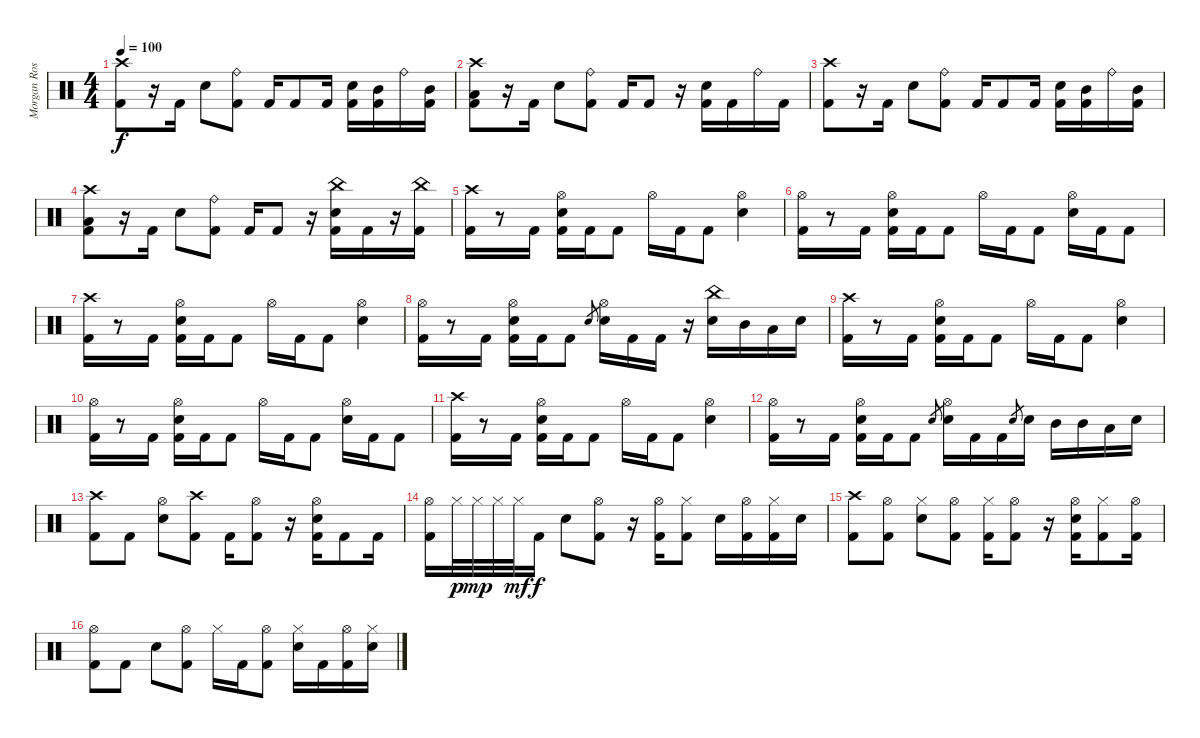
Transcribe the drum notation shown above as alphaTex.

\track ("Morgan Rose - Drums" "Morgan Ros") {instrument percussion}
\staff {score}
\articulation defaults
\ts (4 4)
\tempo 100
\clef neutral
\ks c
("Crash high (hit)" "Kick (hit) 2").8{dy f} r.16 "Kick (hit) 2".16 "Electric Snare (hit)".8 ("Ride (bell)" "Kick (hit) 2").8 "Kick (hit) 2".16 "Kick (hit) 2".8 "Kick (hit) 2".16 ("Electric Snare (hit)" "Kick (hit) 2").16 ("Mid Tom (hit)" "Kick (hit) 2").16 "Ride (bell)".16 ("Mid Tom (hit)" "Kick (hit) 2").16 |
("Crash high (hit)" "Low Tom (hit)" "Kick (hit) 2").8 r.16 "Kick (hit) 2".16 "Electric Snare (hit)".8 ("Ride (bell)" "Kick (hit) 2").8 "Kick (hit) 2".16 "Kick (hit) 2".8 r.16 ("Electric Snare (hit)" "Kick (hit) 2").16 "Kick (hit) 2".16 "Ride (bell)".16 "Kick (hit) 2".16 |
("Crash high (hit)" "Kick (hit) 2").8 r.16 "Kick (hit) 2".16 "Electric Snare (hit)".8 ("Ride (bell)" "Kick (hit) 2").8 "Kick (hit) 2".16 "Kick (hit) 2".8 "Kick (hit) 2".16 ("Electric Snare (hit)" "Kick (hit) 2").16 ("Mid Tom (hit)" "Kick (hit) 2").16 "Ride (bell)".16 ("Mid Tom (hit)" "Kick (hit) 2").16 |
("Crash high (hit)" "Low Tom (hit)" "Kick (hit) 2").8 r.16 "Kick (hit) 2".16 "Electric Snare (hit)".8 ("Ride (bell)" "Kick (hit) 2").8 "Kick (hit) 2".16 "Kick (hit) 2".8 r.16 ("China (hit)" "Electric Snare (hit)" "Kick (hit) 2").16 "Kick (hit) 2".16 r.16 ("China (hit)" "Kick (hit) 2").16 |
("Crash high (hit)" "Kick (hit) 2").16 r.8 "Kick (hit) 2".16 ("Hi-Hat (open)" "Electric Snare (hit)" "Kick (hit) 2").16 "Kick (hit) 2".16 "Kick (hit) 2".8 "Hi-Hat (open)".16 "Kick (hit) 2".16 "Kick (hit) 2".8 ("Hi-Hat (open)" "Electric Snare (hit)").4 |
("Hi-Hat (open)" "Kick (hit) 2").16 r.8 "Kick (hit) 2".16 ("Hi-Hat (open)" "Electric Snare (hit)" "Kick (hit) 2").16 "Kick (hit) 2".16 "Kick (hit) 2".8 "Hi-Hat (open)".16 "Kick (hit) 2".16 "Kick (hit) 2".8 ("Hi-Hat (open)" "Electric Snare (hit)").16 "Kick (hit) 2".16 "Kick (hit) 2".8 |
("Crash high (hit)" "Kick (hit) 2").16 r.8 "Kick (hit) 2".16 ("Hi-Hat (open)" "Electric Snare (hit)" "Kick (hit) 2").16 "Kick (hit) 2".16 "Kick (hit) 2".8 "Hi-Hat (open)".16 "Kick (hit) 2".16 "Kick (hit) 2".8 ("Hi-Hat (open)" "Electric Snare (hit)").4 |
("Hi-Hat (open)" "Kick (hit) 2").16 r.8 "Kick (hit) 2".16 ("Hi-Hat (open)" "Electric Snare (hit)" "Kick (hit) 2").16 "Kick (hit) 2".16 "Kick (hit) 2".8 "Electric Snare (hit)"{sl}.8{gr} ("Hi-Hat (open)" "Electric Snare (hit)").16 "Kick (hit) 2".16 "Kick (hit) 2".16 r.16 ("China (hit)" "Electric Snare (hit)").16 "Mid Tom (hit)".16 "Low Tom (hit)".16 "Electric Snare (hit)".16 |
("Crash high (hit)" "Kick (hit) 2").16 r.8 "Kick (hit) 2".16 ("Hi-Hat (open)" "Electric Snare (hit)" "Kick (hit) 2").16 "Kick (hit) 2".16 "Kick (hit) 2".8 "Hi-Hat (open)".16 "Kick (hit) 2".16 "Kick (hit) 2".8 ("Hi-Hat (open)" "Electric Snare (hit)").4 |
("Hi-Hat (open)" "Kick (hit) 2").16 r.8 "Kick (hit) 2".16 ("Hi-Hat (open)" "Electric Snare (hit)" "Kick (hit) 2").16 "Kick (hit) 2".16 "Kick (hit) 2".8 "Hi-Hat (open)".16 "Kick (hit) 2".16 "Kick (hit) 2".8 ("Hi-Hat (open)" "Electric Snare (hit)").16 "Kick (hit) 2".16 "Kick (hit) 2".8 |
("Crash high (hit)" "Kick (hit) 2").16 r.8 "Kick (hit) 2".16 ("Hi-Hat (open)" "Electric Snare (hit)" "Kick (hit) 2").16 "Kick (hit) 2".16 "Kick (hit) 2".8 "Hi-Hat (open)".16 "Kick (hit) 2".16 "Kick (hit) 2".8 ("Hi-Hat (open)" "Electric Snare (hit)").4 |
("Hi-Hat (open)" "Kick (hit) 2").16 r.8 "Kick (hit) 2".16 ("Hi-Hat (open)" "Electric Snare (hit)" "Kick (hit) 2").16 "Kick (hit) 2".16 "Kick (hit) 2".8 "Electric Snare (hit)"{sl}.8{gr} ("Hi-Hat (open)" "Electric Snare (hit)").16 "Kick (hit) 2".16 "Kick (hit) 2".16 "Electric Snare (hit)".8{gr} "Electric Snare (hit)".16 "Mid Tom (hit)".16 "Mid Tom (hit)".16 "Low Tom (hit)".16 "Electric Snare (hit)".16 |
("Crash high (hit)" "Kick (hit) 2").8 "Kick (hit) 2".8 ("Hi-Hat (open)" "Electric Snare (hit)").8 ("Crash high (hit)" "Kick (hit) 2").8 "Kick (hit) 2".16 ("Hi-Hat (open)" "Kick (hit) 2").8 r.16 ("Hi-Hat (open)" "Electric Snare (hit)" "Kick (hit) 2").16 "Kick (hit) 2".8 "Kick (hit) 2".16 |
("Hi-Hat (open)" "Kick (hit) 2").16 "Hi-Hat (closed)".32{dy p} "Hi-Hat (closed)".32{dy mp} "Hi-Hat (closed)".32 "Hi-Hat (closed)".32{dy mf} "Kick (hit) 2".16{dy f} "Electric Snare (hit)".8 ("Hi-Hat (open)" "Kick (hit) 2").8 r.16 ("Hi-Hat (open)" "Kick (hit) 2").16 ("Hi-Hat (closed)" "Kick (hit) 2").8 "Electric Snare (hit)".16 ("Hi-Hat (open)" "Kick (hit) 2").16 ("Hi-Hat (closed)" "Kick (hit) 2").16 "Electric Snare (hit)".16 |
("Crash high (hit)" "Kick (hit) 2").8 ("Hi-Hat (open)" "Kick (hit) 2").8 ("Hi-Hat (closed)" "Electric Snare (hit)").8 ("Hi-Hat (open)" "Kick (hit) 2").8 ("Hi-Hat (closed)" "Kick (hit) 2").16 ("Hi-Hat (open)" "Kick (hit) 2").8 r.16 ("Hi-Hat (open)" "Electric Snare (hit)" "Kick (hit) 2").16 ("Hi-Hat (closed)" "Kick (hit) 2").8 ("Hi-Hat (open)" "Kick (hit) 2").16 |
("Hi-Hat (open)" "Kick (hit) 2").8 "Kick (hit) 2".8 "Electric Snare (hit)".8 ("Hi-Hat (open)" "Kick (hit) 2").8 "Hi-Hat (closed)".16 "Kick (hit) 2".16 ("Hi-Hat (open)" "Kick (hit) 2").8 ("Hi-Hat (closed)" "Electric Snare (hit)").16 "Kick (hit) 2".16 ("Hi-Hat (open)" "Kick (hit) 2").16 ("Hi-Hat (closed)" "Electric Snare (hit)").16
